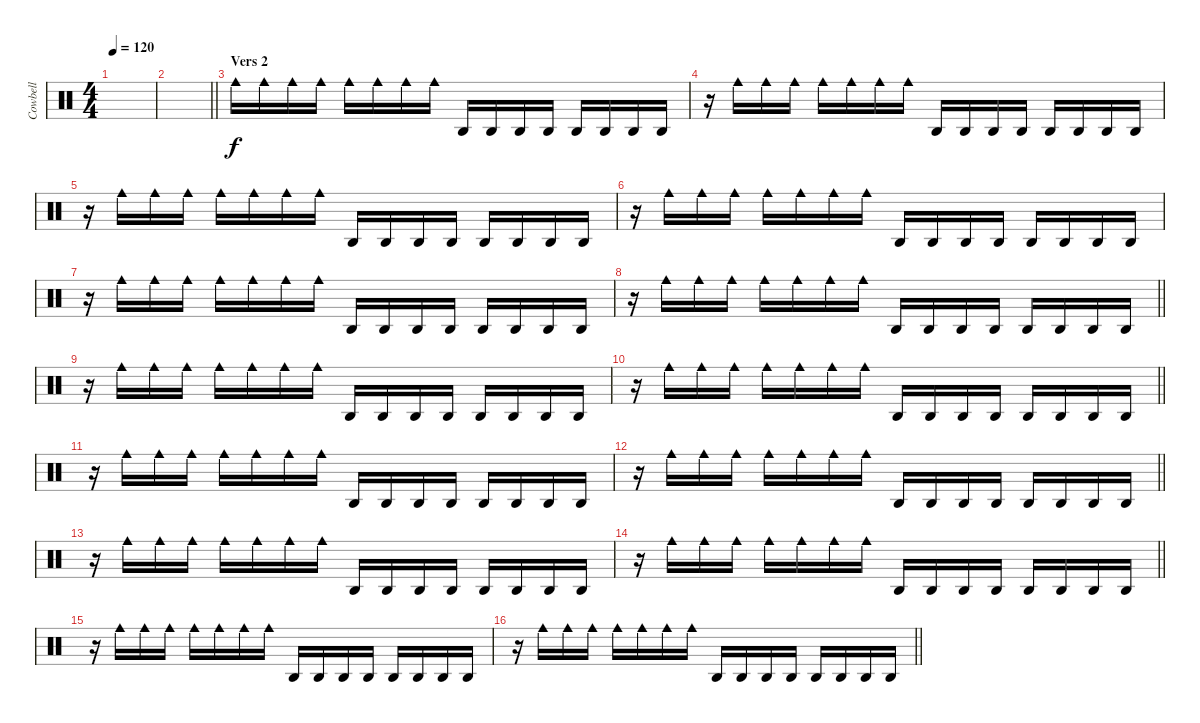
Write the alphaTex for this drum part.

\track ("Cowbell" "Cowbell") {instrument percussion}
\staff {score}
\articulation defaults
\ts (4 4)
\tempo 120
\clef neutral
\ks c
|
\barLineRight lightlight
|
\section ("" "Vers 2")
"Cowbell medium (hit)".16{dy f} "Cowbell medium (hit)".16 "Cowbell medium (hit)".16 "Cowbell medium (hit)".16 "Cowbell medium (hit)".16 "Cowbell medium (hit)".16 "Cowbell medium (hit)".16 "Cowbell medium (hit)".16 "Agogo high (hit)".16 "Agogo high (hit)".16 "Agogo high (hit)".16 "Agogo high (hit)".16 "Agogo high (hit)".16 "Agogo high (hit)".16 "Agogo high (hit)".16 "Agogo high (hit)".16 |
r.16 "Cowbell medium (hit)".16 "Cowbell medium (hit)".16 "Cowbell medium (hit)".16 "Cowbell medium (hit)".16 "Cowbell medium (hit)".16 "Cowbell medium (hit)".16 "Cowbell medium (hit)".16 "Agogo high (hit)".16 "Agogo high (hit)".16 "Agogo high (hit)".16 "Agogo high (hit)".16 "Agogo high (hit)".16 "Agogo high (hit)".16 "Agogo high (hit)".16 "Agogo high (hit)".16 |
r.16 "Cowbell medium (hit)".16 "Cowbell medium (hit)".16 "Cowbell medium (hit)".16 "Cowbell medium (hit)".16 "Cowbell medium (hit)".16 "Cowbell medium (hit)".16 "Cowbell medium (hit)".16 "Agogo high (hit)".16 "Agogo high (hit)".16 "Agogo high (hit)".16 "Agogo high (hit)".16 "Agogo high (hit)".16 "Agogo high (hit)".16 "Agogo high (hit)".16 "Agogo high (hit)".16 |
r.16 "Cowbell medium (hit)".16 "Cowbell medium (hit)".16 "Cowbell medium (hit)".16 "Cowbell medium (hit)".16 "Cowbell medium (hit)".16 "Cowbell medium (hit)".16 "Cowbell medium (hit)".16 "Agogo high (hit)".16 "Agogo high (hit)".16 "Agogo high (hit)".16 "Agogo high (hit)".16 "Agogo high (hit)".16 "Agogo high (hit)".16 "Agogo high (hit)".16 "Agogo high (hit)".16 |
r.16 "Cowbell medium (hit)".16 "Cowbell medium (hit)".16 "Cowbell medium (hit)".16 "Cowbell medium (hit)".16 "Cowbell medium (hit)".16 "Cowbell medium (hit)".16 "Cowbell medium (hit)".16 "Agogo high (hit)".16 "Agogo high (hit)".16 "Agogo high (hit)".16 "Agogo high (hit)".16 "Agogo high (hit)".16 "Agogo high (hit)".16 "Agogo high (hit)".16 "Agogo high (hit)".16 |
\barLineRight lightlight
r.16 "Cowbell medium (hit)".16 "Cowbell medium (hit)".16 "Cowbell medium (hit)".16 "Cowbell medium (hit)".16 "Cowbell medium (hit)".16 "Cowbell medium (hit)".16 "Cowbell medium (hit)".16 "Agogo high (hit)".16 "Agogo high (hit)".16 "Agogo high (hit)".16 "Agogo high (hit)".16 "Agogo high (hit)".16 "Agogo high (hit)".16 "Agogo high (hit)".16 "Agogo high (hit)".16 |
r.16 "Cowbell medium (hit)".16 "Cowbell medium (hit)".16 "Cowbell medium (hit)".16 "Cowbell medium (hit)".16 "Cowbell medium (hit)".16 "Cowbell medium (hit)".16 "Cowbell medium (hit)".16 "Agogo high (hit)".16 "Agogo high (hit)".16 "Agogo high (hit)".16 "Agogo high (hit)".16 "Agogo high (hit)".16 "Agogo high (hit)".16 "Agogo high (hit)".16 "Agogo high (hit)".16 |
\barLineRight lightlight
r.16 "Cowbell medium (hit)".16 "Cowbell medium (hit)".16 "Cowbell medium (hit)".16 "Cowbell medium (hit)".16 "Cowbell medium (hit)".16 "Cowbell medium (hit)".16 "Cowbell medium (hit)".16 "Agogo high (hit)".16 "Agogo high (hit)".16 "Agogo high (hit)".16 "Agogo high (hit)".16 "Agogo high (hit)".16 "Agogo high (hit)".16 "Agogo high (hit)".16 "Agogo high (hit)".16 |
r.16 "Cowbell medium (hit)".16 "Cowbell medium (hit)".16 "Cowbell medium (hit)".16 "Cowbell medium (hit)".16 "Cowbell medium (hit)".16 "Cowbell medium (hit)".16 "Cowbell medium (hit)".16 "Agogo high (hit)".16 "Agogo high (hit)".16 "Agogo high (hit)".16 "Agogo high (hit)".16 "Agogo high (hit)".16 "Agogo high (hit)".16 "Agogo high (hit)".16 "Agogo high (hit)".16 |
\barLineRight lightlight
r.16 "Cowbell medium (hit)".16 "Cowbell medium (hit)".16 "Cowbell medium (hit)".16 "Cowbell medium (hit)".16 "Cowbell medium (hit)".16 "Cowbell medium (hit)".16 "Cowbell medium (hit)".16 "Agogo high (hit)".16 "Agogo high (hit)".16 "Agogo high (hit)".16 "Agogo high (hit)".16 "Agogo high (hit)".16 "Agogo high (hit)".16 "Agogo high (hit)".16 "Agogo high (hit)".16 |
r.16 "Cowbell medium (hit)".16 "Cowbell medium (hit)".16 "Cowbell medium (hit)".16 "Cowbell medium (hit)".16 "Cowbell medium (hit)".16 "Cowbell medium (hit)".16 "Cowbell medium (hit)".16 "Agogo high (hit)".16 "Agogo high (hit)".16 "Agogo high (hit)".16 "Agogo high (hit)".16 "Agogo high (hit)".16 "Agogo high (hit)".16 "Agogo high (hit)".16 "Agogo high (hit)".16 |
\barLineRight lightlight
r.16 "Cowbell medium (hit)".16 "Cowbell medium (hit)".16 "Cowbell medium (hit)".16 "Cowbell medium (hit)".16 "Cowbell medium (hit)".16 "Cowbell medium (hit)".16 "Cowbell medium (hit)".16 "Agogo high (hit)".16 "Agogo high (hit)".16 "Agogo high (hit)".16 "Agogo high (hit)".16 "Agogo high (hit)".16 "Agogo high (hit)".16 "Agogo high (hit)".16 "Agogo high (hit)".16 |
r.16 "Cowbell medium (hit)".16 "Cowbell medium (hit)".16 "Cowbell medium (hit)".16 "Cowbell medium (hit)".16 "Cowbell medium (hit)".16 "Cowbell medium (hit)".16 "Cowbell medium (hit)".16 "Agogo high (hit)".16 "Agogo high (hit)".16 "Agogo high (hit)".16 "Agogo high (hit)".16 "Agogo high (hit)".16 "Agogo high (hit)".16 "Agogo high (hit)".16 "Agogo high (hit)".16 |
\barLineRight lightlight
r.16 "Cowbell medium (hit)".16 "Cowbell medium (hit)".16 "Cowbell medium (hit)".16 "Cowbell medium (hit)".16 "Cowbell medium (hit)".16 "Cowbell medium (hit)".16 "Cowbell medium (hit)".16 "Agogo high (hit)".16 "Agogo high (hit)".16 "Agogo high (hit)".16 "Agogo high (hit)".16 "Agogo high (hit)".16 "Agogo high (hit)".16 "Agogo high (hit)".16 "Agogo high (hit)".16
